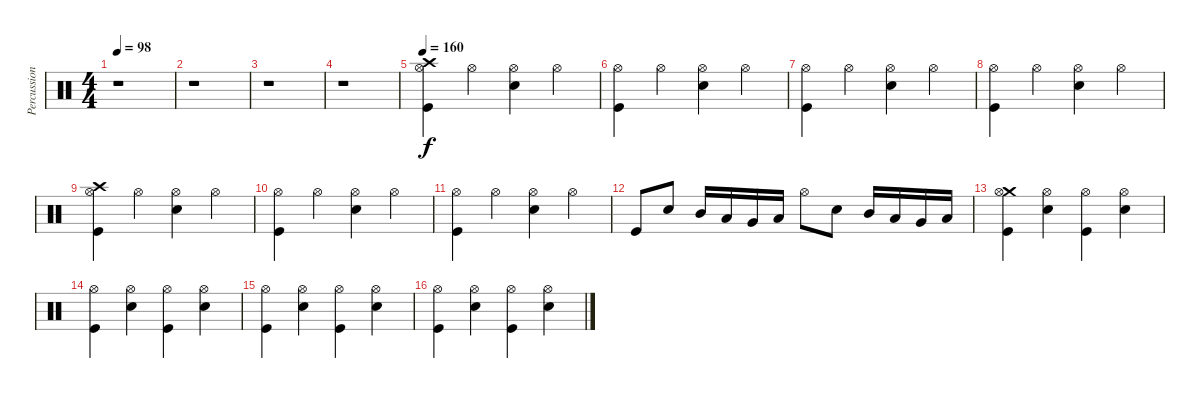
\track ("Percussion" "Percussion") {instrument percussion}
\staff {score}
\articulation defaults
\ts (4 4)
\tempo 98
\clef neutral
\ks c
r.1{dy f} |
r.1 |
r.1 |
r.1 |
\tempo 160
("Crash high (hit)" "Hi-Hat (open)" "Kick (hit)").4 "Hi-Hat (open)".4 ("Hi-Hat (open)" "Electric Snare (hit)").4 "Hi-Hat (open)".4 |
("Hi-Hat (open)" "Kick (hit)").4 "Hi-Hat (open)".4 ("Hi-Hat (open)" "Electric Snare (hit)").4 "Hi-Hat (open)".4 |
("Hi-Hat (open)" "Kick (hit)").4 "Hi-Hat (open)".4 ("Hi-Hat (open)" "Electric Snare (hit)").4 "Hi-Hat (open)".4 |
("Hi-Hat (open)" "Kick (hit)").4 "Hi-Hat (open)".4 ("Hi-Hat (open)" "Electric Snare (hit)").4 "Hi-Hat (open)".4 |
("Crash high (hit)" "Hi-Hat (open)" "Kick (hit)").4 "Hi-Hat (open)".4 ("Hi-Hat (open)" "Electric Snare (hit)").4 "Hi-Hat (open)".4 |
("Hi-Hat (open)" "Kick (hit)").4 "Hi-Hat (open)".4 ("Hi-Hat (open)" "Electric Snare (hit)").4 "Hi-Hat (open)".4 |
("Hi-Hat (open)" "Kick (hit)").4 "Hi-Hat (open)".4 ("Hi-Hat (open)" "Electric Snare (hit)").4 "Hi-Hat (open)".4 |
"Kick (hit)".8 "Electric Snare (hit)".8 "Mid Tom (hit)".16 "Low Tom (hit)".16 "Very Low Tom (hit)".16 "Low Floor Tom (hit)".16 "Hi-Hat (open)".8 "Electric Snare (hit)".8 "Mid Tom (hit)".16 "Low Tom (hit)".16 "Very Low Tom (hit)".16 "Low Floor Tom (hit)".16 |
("Crash medium (hit)" "Hi-Hat (open)" "Kick (hit)").4 ("Hi-Hat (open)" "Electric Snare (hit)").4 ("Hi-Hat (open)" "Kick (hit)").4 ("Hi-Hat (open)" "Electric Snare (hit)").4 |
("Hi-Hat (open)" "Kick (hit)").4 ("Hi-Hat (open)" "Electric Snare (hit)").4 ("Hi-Hat (open)" "Kick (hit)").4 ("Hi-Hat (open)" "Electric Snare (hit)").4 |
("Hi-Hat (open)" "Kick (hit)").4 ("Hi-Hat (open)" "Electric Snare (hit)").4 ("Hi-Hat (open)" "Kick (hit)").4 ("Hi-Hat (open)" "Electric Snare (hit)").4 |
("Hi-Hat (open)" "Kick (hit)").4 ("Hi-Hat (open)" "Electric Snare (hit)").4 ("Hi-Hat (open)" "Kick (hit)").4 ("Hi-Hat (open)" "Electric Snare (hit)").4
